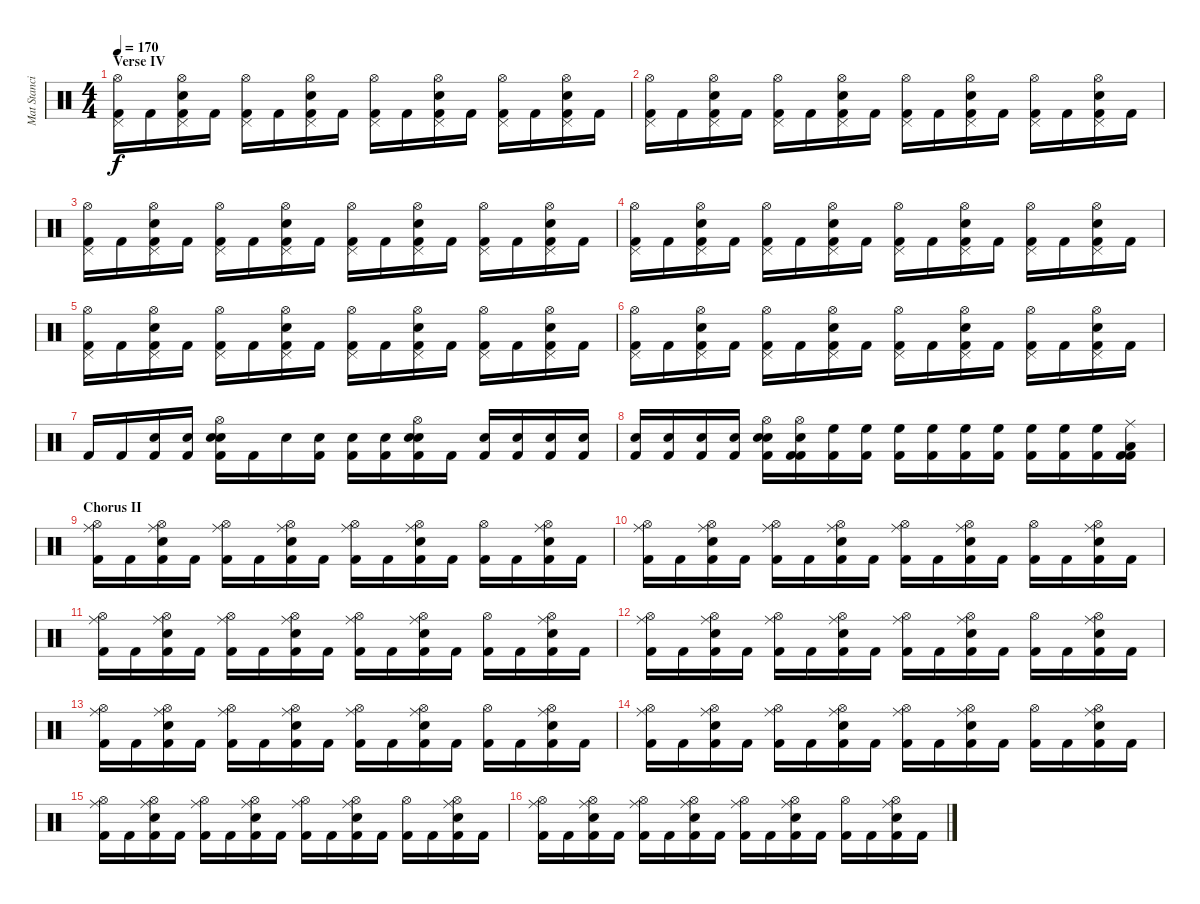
\track ("Mat Stancioiu" "Mat Stanci") {instrument percussion}
\staff {score}
\articulation defaults
\ts (4 4)
\section ("" "Verse IV")
\tempo 170
\clef neutral
\ks c
("Hi-Hat (open)" "Kick (hit) 2" "Pedal Hi-Hat (hit)").16{dy f} "Kick (hit) 2".16 ("Electric Snare (hit)" "Hi-Hat (open)" "Kick (hit) 2" "Pedal Hi-Hat (hit)").16 "Kick (hit) 2".16 ("Hi-Hat (open)" "Kick (hit) 2" "Pedal Hi-Hat (hit)").16 "Kick (hit) 2".16 ("Electric Snare (hit)" "Hi-Hat (open)" "Kick (hit) 2" "Pedal Hi-Hat (hit)").16 "Kick (hit) 2".16 ("Hi-Hat (open)" "Kick (hit) 2" "Pedal Hi-Hat (hit)").16 "Kick (hit) 2".16 ("Electric Snare (hit)" "Hi-Hat (open)" "Kick (hit) 2" "Pedal Hi-Hat (hit)").16 "Kick (hit) 2".16 ("Hi-Hat (open)" "Kick (hit) 2" "Pedal Hi-Hat (hit)").16 "Kick (hit) 2".16 ("Electric Snare (hit)" "Hi-Hat (open)" "Kick (hit) 2" "Pedal Hi-Hat (hit)").16 "Kick (hit) 2".16 |
("Hi-Hat (open)" "Kick (hit) 2" "Pedal Hi-Hat (hit)").16 "Kick (hit) 2".16 ("Electric Snare (hit)" "Hi-Hat (open)" "Kick (hit) 2" "Pedal Hi-Hat (hit)").16 "Kick (hit) 2".16 ("Hi-Hat (open)" "Kick (hit) 2" "Pedal Hi-Hat (hit)").16 "Kick (hit) 2".16 ("Electric Snare (hit)" "Hi-Hat (open)" "Kick (hit) 2" "Pedal Hi-Hat (hit)").16 "Kick (hit) 2".16 ("Hi-Hat (open)" "Kick (hit) 2" "Pedal Hi-Hat (hit)").16 "Kick (hit) 2".16 ("Electric Snare (hit)" "Hi-Hat (open)" "Kick (hit) 2" "Pedal Hi-Hat (hit)").16 "Kick (hit) 2".16 ("Hi-Hat (open)" "Kick (hit) 2" "Pedal Hi-Hat (hit)").16 "Kick (hit) 2".16 ("Electric Snare (hit)" "Hi-Hat (open)" "Kick (hit) 2" "Pedal Hi-Hat (hit)").16 "Kick (hit) 2".16 |
("Hi-Hat (open)" "Kick (hit) 2" "Pedal Hi-Hat (hit)").16 "Kick (hit) 2".16 ("Electric Snare (hit)" "Hi-Hat (open)" "Kick (hit) 2" "Pedal Hi-Hat (hit)").16 "Kick (hit) 2".16 ("Hi-Hat (open)" "Kick (hit) 2" "Pedal Hi-Hat (hit)").16 "Kick (hit) 2".16 ("Electric Snare (hit)" "Hi-Hat (open)" "Kick (hit) 2" "Pedal Hi-Hat (hit)").16 "Kick (hit) 2".16 ("Hi-Hat (open)" "Kick (hit) 2" "Pedal Hi-Hat (hit)").16 "Kick (hit) 2".16 ("Electric Snare (hit)" "Hi-Hat (open)" "Kick (hit) 2" "Pedal Hi-Hat (hit)").16 "Kick (hit) 2".16 ("Hi-Hat (open)" "Kick (hit) 2" "Pedal Hi-Hat (hit)").16 "Kick (hit) 2".16 ("Electric Snare (hit)" "Hi-Hat (open)" "Kick (hit) 2" "Pedal Hi-Hat (hit)").16 "Kick (hit) 2".16 |
("Hi-Hat (open)" "Kick (hit) 2" "Pedal Hi-Hat (hit)").16 "Kick (hit) 2".16 ("Electric Snare (hit)" "Hi-Hat (open)" "Kick (hit) 2" "Pedal Hi-Hat (hit)").16 "Kick (hit) 2".16 ("Hi-Hat (open)" "Kick (hit) 2" "Pedal Hi-Hat (hit)").16 "Kick (hit) 2".16 ("Electric Snare (hit)" "Hi-Hat (open)" "Kick (hit) 2" "Pedal Hi-Hat (hit)").16 "Kick (hit) 2".16 ("Hi-Hat (open)" "Kick (hit) 2" "Pedal Hi-Hat (hit)").16 "Kick (hit) 2".16 ("Electric Snare (hit)" "Hi-Hat (open)" "Kick (hit) 2" "Pedal Hi-Hat (hit)").16 "Kick (hit) 2".16 ("Hi-Hat (open)" "Kick (hit) 2" "Pedal Hi-Hat (hit)").16 "Kick (hit) 2".16 ("Electric Snare (hit)" "Hi-Hat (open)" "Kick (hit) 2" "Pedal Hi-Hat (hit)").16 "Kick (hit) 2".16 |
("Hi-Hat (open)" "Kick (hit) 2" "Pedal Hi-Hat (hit)").16 "Kick (hit) 2".16 ("Electric Snare (hit)" "Hi-Hat (open)" "Kick (hit) 2" "Pedal Hi-Hat (hit)").16 "Kick (hit) 2".16 ("Hi-Hat (open)" "Kick (hit) 2" "Pedal Hi-Hat (hit)").16 "Kick (hit) 2".16 ("Electric Snare (hit)" "Hi-Hat (open)" "Kick (hit) 2" "Pedal Hi-Hat (hit)").16 "Kick (hit) 2".16 ("Hi-Hat (open)" "Kick (hit) 2" "Pedal Hi-Hat (hit)").16 "Kick (hit) 2".16 ("Electric Snare (hit)" "Hi-Hat (open)" "Kick (hit) 2" "Pedal Hi-Hat (hit)").16 "Kick (hit) 2".16 ("Hi-Hat (open)" "Kick (hit) 2" "Pedal Hi-Hat (hit)").16 "Kick (hit) 2".16 ("Electric Snare (hit)" "Hi-Hat (open)" "Kick (hit) 2" "Pedal Hi-Hat (hit)").16 "Kick (hit) 2".16 |
("Hi-Hat (open)" "Kick (hit) 2" "Pedal Hi-Hat (hit)").16 "Kick (hit) 2".16 ("Electric Snare (hit)" "Hi-Hat (open)" "Kick (hit) 2" "Pedal Hi-Hat (hit)").16 "Kick (hit) 2".16 ("Hi-Hat (open)" "Kick (hit) 2" "Pedal Hi-Hat (hit)").16 "Kick (hit) 2".16 ("Electric Snare (hit)" "Hi-Hat (open)" "Kick (hit) 2" "Pedal Hi-Hat (hit)").16 "Kick (hit) 2".16 ("Hi-Hat (open)" "Kick (hit) 2" "Pedal Hi-Hat (hit)").16 "Kick (hit) 2".16 ("Electric Snare (hit)" "Hi-Hat (open)" "Kick (hit) 2" "Pedal Hi-Hat (hit)").16 "Kick (hit) 2".16 ("Hi-Hat (open)" "Kick (hit) 2" "Pedal Hi-Hat (hit)").16 "Kick (hit) 2".16 ("Electric Snare (hit)" "Hi-Hat (open)" "Kick (hit) 2" "Pedal Hi-Hat (hit)").16 "Kick (hit) 2".16 |
"Kick (hit) 2".16 "Kick (hit) 2".16 ("Electric Snare (hit)" "Kick (hit) 2").16 ("Electric Snare (hit)" "Kick (hit) 2").16 ("Electric Snare (hit)" "Kick (hit) 2" "Hi-Hat (open)" "Snare (hit)").16 "Kick (hit) 2".16 "Electric Snare (hit)".16 ("Electric Snare (hit)" "Kick (hit) 2").16 ("Electric Snare (hit)" "Kick (hit) 2").16 ("Electric Snare (hit)" "Kick (hit) 2").16 ("Electric Snare (hit)" "Kick (hit) 2" "Hi-Hat (open)" "Snare (hit)").16 "Kick (hit) 2".16 ("Electric Snare (hit)" "Kick (hit) 2").16 ("Electric Snare (hit)" "Kick (hit) 2").16 ("Electric Snare (hit)" "Kick (hit) 2").16 ("Electric Snare (hit)" "Kick (hit) 2").16 |
("Electric Snare (hit)" "Kick (hit) 2").16 ("Electric Snare (hit)" "Kick (hit) 2").16 ("Electric Snare (hit)" "Kick (hit) 2").16 ("Electric Snare (hit)" "Kick (hit) 2").16 ("Electric Snare (hit)" "Kick (hit) 2" "Hi-Hat (open)" "Snare (hit)").16 ("Kick (hit) 2" "Kick (hit) 2" "Hi-Hat (open)" "Snare (hit)").16 ("Kick (hit) 2" "High Floor Tom (hit)").16 ("Kick (hit) 2" "High Floor Tom (hit)").16 ("Kick (hit) 2" "High Floor Tom (hit)").16 ("Kick (hit) 2" "High Floor Tom (hit)").16 ("Kick (hit) 2" "High Floor Tom (hit)").16 ("Kick (hit) 2" "High Floor Tom (hit)").16 ("Kick (hit) 2" "High Floor Tom (hit)").16 ("Kick (hit) 2" "High Floor Tom (hit)").16 ("Kick (hit) 2" "High Floor Tom (hit)").16 ("Kick (hit) 2" "Kick (hit) 2" "Low Tom (hit)" "Ride (middle)").16 |
\section ("" "Chorus II")
("Hi-Hat (open)" "Kick (hit) 2" "Ride (middle)").16 "Kick (hit) 2".16 ("Electric Snare (hit)" "Hi-Hat (open)" "Kick (hit) 2" "Ride (middle)").16 "Kick (hit) 2".16 ("Hi-Hat (open)" "Kick (hit) 2" "Ride (middle)").16 "Kick (hit) 2".16 ("Electric Snare (hit)" "Hi-Hat (open)" "Kick (hit) 2" "Ride (middle)").16 "Kick (hit) 2".16 ("Hi-Hat (open)" "Kick (hit) 2" "Ride (middle)").16 "Kick (hit) 2".16 ("Electric Snare (hit)" "Hi-Hat (open)" "Kick (hit) 2" "Ride (middle)").16 "Kick (hit) 2".16 ("Hi-Hat (open)" "Kick (hit) 2").16 "Kick (hit) 2".16 ("Electric Snare (hit)" "Hi-Hat (open)" "Kick (hit) 2" "Ride (middle)").16 "Kick (hit) 2".16 |
("Hi-Hat (open)" "Kick (hit) 2" "Ride (middle)").16 "Kick (hit) 2".16 ("Electric Snare (hit)" "Hi-Hat (open)" "Kick (hit) 2" "Ride (middle)").16 "Kick (hit) 2".16 ("Hi-Hat (open)" "Kick (hit) 2" "Ride (middle)").16 "Kick (hit) 2".16 ("Electric Snare (hit)" "Hi-Hat (open)" "Kick (hit) 2" "Ride (middle)").16 "Kick (hit) 2".16 ("Hi-Hat (open)" "Kick (hit) 2" "Ride (middle)").16 "Kick (hit) 2".16 ("Electric Snare (hit)" "Hi-Hat (open)" "Kick (hit) 2" "Ride (middle)").16 "Kick (hit) 2".16 ("Hi-Hat (open)" "Kick (hit) 2").16 "Kick (hit) 2".16 ("Electric Snare (hit)" "Hi-Hat (open)" "Kick (hit) 2" "Ride (middle)").16 "Kick (hit) 2".16 |
("Hi-Hat (open)" "Kick (hit) 2" "Ride (middle)").16 "Kick (hit) 2".16 ("Electric Snare (hit)" "Hi-Hat (open)" "Kick (hit) 2" "Ride (middle)").16 "Kick (hit) 2".16 ("Hi-Hat (open)" "Kick (hit) 2" "Ride (middle)").16 "Kick (hit) 2".16 ("Electric Snare (hit)" "Hi-Hat (open)" "Kick (hit) 2" "Ride (middle)").16 "Kick (hit) 2".16 ("Hi-Hat (open)" "Kick (hit) 2" "Ride (middle)").16 "Kick (hit) 2".16 ("Electric Snare (hit)" "Hi-Hat (open)" "Kick (hit) 2" "Ride (middle)").16 "Kick (hit) 2".16 ("Hi-Hat (open)" "Kick (hit) 2").16 "Kick (hit) 2".16 ("Electric Snare (hit)" "Hi-Hat (open)" "Kick (hit) 2" "Ride (middle)").16 "Kick (hit) 2".16 |
("Hi-Hat (open)" "Kick (hit) 2" "Ride (middle)").16 "Kick (hit) 2".16 ("Electric Snare (hit)" "Hi-Hat (open)" "Kick (hit) 2" "Ride (middle)").16 "Kick (hit) 2".16 ("Hi-Hat (open)" "Kick (hit) 2" "Ride (middle)").16 "Kick (hit) 2".16 ("Electric Snare (hit)" "Hi-Hat (open)" "Kick (hit) 2" "Ride (middle)").16 "Kick (hit) 2".16 ("Hi-Hat (open)" "Kick (hit) 2" "Ride (middle)").16 "Kick (hit) 2".16 ("Electric Snare (hit)" "Hi-Hat (open)" "Kick (hit) 2" "Ride (middle)").16 "Kick (hit) 2".16 ("Hi-Hat (open)" "Kick (hit) 2").16 "Kick (hit) 2".16 ("Electric Snare (hit)" "Hi-Hat (open)" "Kick (hit) 2" "Ride (middle)").16 "Kick (hit) 2".16 |
("Hi-Hat (open)" "Kick (hit) 2" "Ride (middle)").16 "Kick (hit) 2".16 ("Electric Snare (hit)" "Hi-Hat (open)" "Kick (hit) 2" "Ride (middle)").16 "Kick (hit) 2".16 ("Hi-Hat (open)" "Kick (hit) 2" "Ride (middle)").16 "Kick (hit) 2".16 ("Electric Snare (hit)" "Hi-Hat (open)" "Kick (hit) 2" "Ride (middle)").16 "Kick (hit) 2".16 ("Hi-Hat (open)" "Kick (hit) 2" "Ride (middle)").16 "Kick (hit) 2".16 ("Electric Snare (hit)" "Hi-Hat (open)" "Kick (hit) 2" "Ride (middle)").16 "Kick (hit) 2".16 ("Hi-Hat (open)" "Kick (hit) 2").16 "Kick (hit) 2".16 ("Electric Snare (hit)" "Hi-Hat (open)" "Kick (hit) 2" "Ride (middle)").16 "Kick (hit) 2".16 |
("Hi-Hat (open)" "Kick (hit) 2" "Ride (middle)").16 "Kick (hit) 2".16 ("Electric Snare (hit)" "Hi-Hat (open)" "Kick (hit) 2" "Ride (middle)").16 "Kick (hit) 2".16 ("Hi-Hat (open)" "Kick (hit) 2" "Ride (middle)").16 "Kick (hit) 2".16 ("Electric Snare (hit)" "Hi-Hat (open)" "Kick (hit) 2" "Ride (middle)").16 "Kick (hit) 2".16 ("Hi-Hat (open)" "Kick (hit) 2" "Ride (middle)").16 "Kick (hit) 2".16 ("Electric Snare (hit)" "Hi-Hat (open)" "Kick (hit) 2" "Ride (middle)").16 "Kick (hit) 2".16 ("Hi-Hat (open)" "Kick (hit) 2").16 "Kick (hit) 2".16 ("Electric Snare (hit)" "Hi-Hat (open)" "Kick (hit) 2" "Ride (middle)").16 "Kick (hit) 2".16 |
("Hi-Hat (open)" "Kick (hit) 2" "Ride (middle)").16 "Kick (hit) 2".16 ("Electric Snare (hit)" "Hi-Hat (open)" "Kick (hit) 2" "Ride (middle)").16 "Kick (hit) 2".16 ("Hi-Hat (open)" "Kick (hit) 2" "Ride (middle)").16 "Kick (hit) 2".16 ("Electric Snare (hit)" "Hi-Hat (open)" "Kick (hit) 2" "Ride (middle)").16 "Kick (hit) 2".16 ("Hi-Hat (open)" "Kick (hit) 2" "Ride (middle)").16 "Kick (hit) 2".16 ("Electric Snare (hit)" "Hi-Hat (open)" "Kick (hit) 2" "Ride (middle)").16 "Kick (hit) 2".16 ("Hi-Hat (open)" "Kick (hit) 2").16 "Kick (hit) 2".16 ("Electric Snare (hit)" "Hi-Hat (open)" "Kick (hit) 2" "Ride (middle)").16 "Kick (hit) 2".16 |
("Hi-Hat (open)" "Kick (hit) 2" "Ride (middle)").16 "Kick (hit) 2".16 ("Electric Snare (hit)" "Hi-Hat (open)" "Kick (hit) 2" "Ride (middle)").16 "Kick (hit) 2".16 ("Hi-Hat (open)" "Kick (hit) 2" "Ride (middle)").16 "Kick (hit) 2".16 ("Electric Snare (hit)" "Hi-Hat (open)" "Kick (hit) 2" "Ride (middle)").16 "Kick (hit) 2".16 ("Hi-Hat (open)" "Kick (hit) 2" "Ride (middle)").16 "Kick (hit) 2".16 ("Electric Snare (hit)" "Hi-Hat (open)" "Kick (hit) 2" "Ride (middle)").16 "Kick (hit) 2".16 ("Hi-Hat (open)" "Kick (hit) 2").16 "Kick (hit) 2".16 ("Electric Snare (hit)" "Hi-Hat (open)" "Kick (hit) 2" "Ride (middle)").16 "Kick (hit) 2".16
